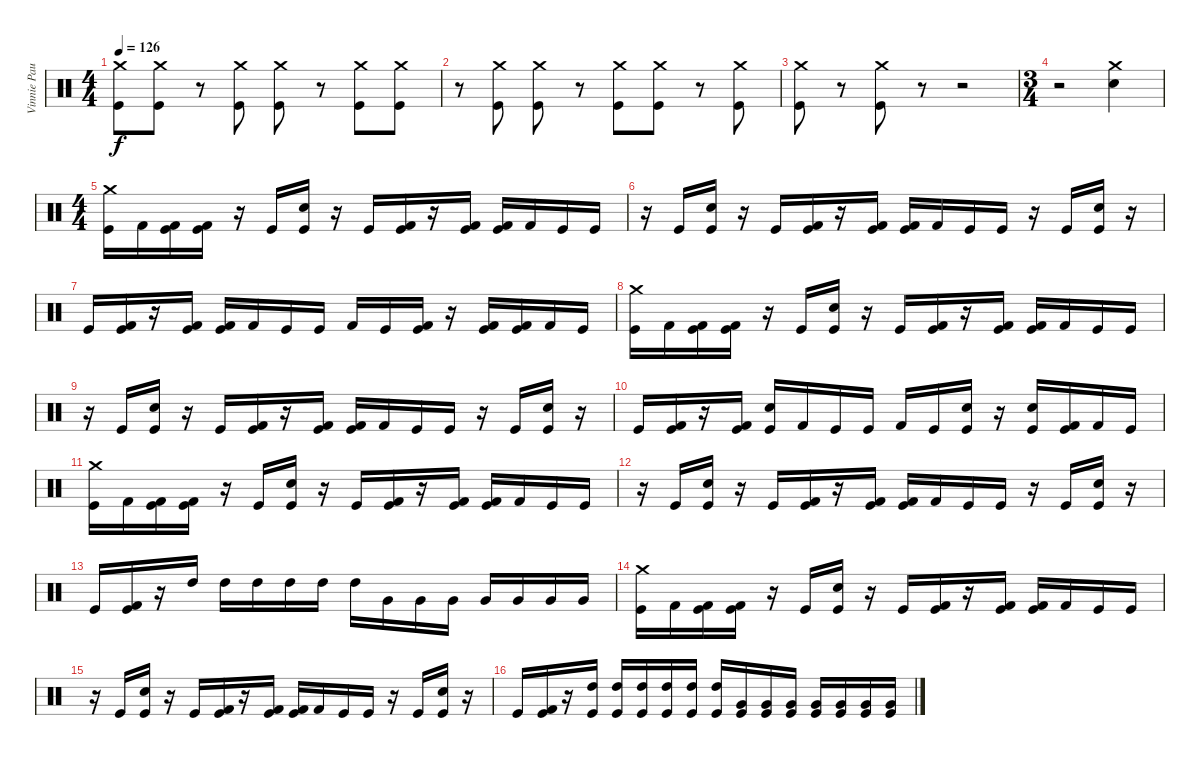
\track ("Vinnie Paul" "Vinnie Pau") {instrument percussion}
\staff {score}
\articulation defaults
\ts (4 4)
\tempo 126
\clef neutral
\ks c
("Kick (hit)" "Crash medium (hit)").8{dy f} ("Kick (hit)" "Crash medium (hit)").8 r.8 ("Kick (hit)" "Crash medium (hit)").8 ("Kick (hit)" "Crash medium (hit)").8 r.8 ("Kick (hit)" "Crash medium (hit)").8 ("Kick (hit)" "Crash medium (hit)").8 |
r.8 ("Kick (hit)" "Crash medium (hit)").8 ("Kick (hit)" "Crash medium (hit)").8 r.8 ("Kick (hit)" "Crash medium (hit)").8 ("Kick (hit)" "Crash medium (hit)").8 r.8 ("Kick (hit)" "Crash medium (hit)").8 |
("Kick (hit)" "Crash medium (hit)").8 r.8 ("Kick (hit)" "Crash medium (hit)").8 r.8 r.2 |
\ts (3 4)
r.2 ("Snare (hit) 2" "Crash medium (hit)").4 |
\ts (4 4)
("Kick (hit)" "Crash medium (hit)").16 "Kick (hit) 2".16 ("Kick (hit)" "Kick (hit) 2").16 ("Kick (hit)" "Kick (hit) 2").16 r.16 "Kick (hit)".16 ("Kick (hit)" "Snare (hit) 2").16 r.16 "Kick (hit)".16 ("Kick (hit)" "Kick (hit) 2").16 r.16 ("Kick (hit)" "Kick (hit) 2").16 ("Kick (hit)" "Kick (hit) 2").16 "Kick (hit) 2".16 "Kick (hit)".16 "Kick (hit)".16 |
r.16 "Kick (hit)".16 ("Kick (hit)" "Snare (hit) 2").16 r.16 "Kick (hit)".16 ("Kick (hit)" "Kick (hit) 2").16 r.16 ("Kick (hit)" "Kick (hit) 2").16 ("Kick (hit)" "Kick (hit) 2").16 "Kick (hit) 2".16 "Kick (hit)".16 "Kick (hit)".16 r.16 "Kick (hit)".16 ("Kick (hit)" "Snare (hit) 2").16 r.16 |
"Kick (hit)".16 ("Kick (hit)" "Kick (hit) 2").16 r.16 ("Kick (hit)" "Kick (hit) 2").16 ("Kick (hit)" "Kick (hit) 2").16 "Kick (hit) 2".16 "Kick (hit)".16 "Kick (hit)".16 "Kick (hit) 2".16 "Kick (hit)".16 ("Kick (hit)" "Kick (hit) 2").16 r.16 ("Kick (hit)" "Kick (hit) 2").16 ("Kick (hit)" "Kick (hit) 2").16 "Kick (hit) 2".16 "Kick (hit)".16 |
("Kick (hit)" "Crash medium (hit)").16 "Kick (hit) 2".16 ("Kick (hit)" "Kick (hit) 2").16 ("Kick (hit)" "Kick (hit) 2").16 r.16 "Kick (hit)".16 ("Kick (hit)" "Snare (hit) 2").16 r.16 "Kick (hit)".16 ("Kick (hit)" "Kick (hit) 2").16 r.16 ("Kick (hit)" "Kick (hit) 2").16 ("Kick (hit)" "Kick (hit) 2").16 "Kick (hit) 2".16 "Kick (hit)".16 "Kick (hit)".16 |
r.16 "Kick (hit)".16 ("Kick (hit)" "Snare (hit) 2").16 r.16 "Kick (hit)".16 ("Kick (hit)" "Kick (hit) 2").16 r.16 ("Kick (hit)" "Kick (hit) 2").16 ("Kick (hit)" "Kick (hit) 2").16 "Kick (hit) 2".16 "Kick (hit)".16 "Kick (hit)".16 r.16 "Kick (hit)".16 ("Kick (hit)" "Snare (hit) 2").16 r.16 |
"Kick (hit)".16 ("Kick (hit)" "Kick (hit) 2").16 r.16 ("Kick (hit)" "Kick (hit) 2").16 ("Kick (hit)" "Snare (hit) 2").16 "Kick (hit) 2".16 "Kick (hit)".16 "Kick (hit)".16 "Kick (hit) 2".16 "Kick (hit)".16 ("Kick (hit)" "Snare (hit) 2").16 r.16 ("Kick (hit)" "Snare (hit) 2").16 ("Kick (hit)" "Kick (hit) 2").16 "Kick (hit) 2".16 "Kick (hit)".16 |
("Kick (hit)" "Crash medium (hit)").16 "Kick (hit) 2".16 ("Kick (hit)" "Kick (hit) 2").16 ("Kick (hit)" "Kick (hit) 2").16 r.16 "Kick (hit)".16 ("Kick (hit)" "Snare (hit) 2").16 r.16 "Kick (hit)".16 ("Kick (hit)" "Kick (hit) 2").16 r.16 ("Kick (hit)" "Kick (hit) 2").16 ("Kick (hit)" "Kick (hit) 2").16 "Kick (hit) 2".16 "Kick (hit)".16 "Kick (hit)".16 |
r.16 "Kick (hit)".16 ("Kick (hit)" "Snare (hit) 2").16 r.16 "Kick (hit)".16 ("Kick (hit)" "Kick (hit) 2").16 r.16 ("Kick (hit)" "Kick (hit) 2").16 ("Kick (hit)" "Kick (hit) 2").16 "Kick (hit) 2".16 "Kick (hit)".16 "Kick (hit)".16 r.16 "Kick (hit)".16 ("Kick (hit)" "Snare (hit) 2").16 r.16 |
"Kick (hit)".16 ("Kick (hit)" "Kick (hit) 2").16 r.16 "High Tom (hit)".16 "High Tom (hit)".16 "High Tom (hit)".16 "High Tom (hit)".16 "High Tom (hit)".16 "High Tom (hit)".16 "Very Low Tom (hit)".16 "Very Low Tom (hit)".16 "Very Low Tom (hit)".16 "Very Low Tom (hit)".16 "Very Low Tom (hit)".16 "Very Low Tom (hit)".16 "Very Low Tom (hit)".16 |
("Kick (hit)" "Crash medium (hit)").16 "Kick (hit) 2".16 ("Kick (hit)" "Kick (hit) 2").16 ("Kick (hit)" "Kick (hit) 2").16 r.16 "Kick (hit)".16 ("Kick (hit)" "Snare (hit) 2").16 r.16 "Kick (hit)".16 ("Kick (hit)" "Kick (hit) 2").16 r.16 ("Kick (hit)" "Kick (hit) 2").16 ("Kick (hit)" "Kick (hit) 2").16 "Kick (hit) 2".16 "Kick (hit)".16 "Kick (hit)".16 |
r.16 "Kick (hit)".16 ("Kick (hit)" "Snare (hit) 2").16 r.16 "Kick (hit)".16 ("Kick (hit)" "Kick (hit) 2").16 r.16 ("Kick (hit)" "Kick (hit) 2").16 ("Kick (hit)" "Kick (hit) 2").16 "Kick (hit) 2".16 "Kick (hit)".16 "Kick (hit)".16 r.16 "Kick (hit)".16 ("Kick (hit)" "Snare (hit) 2").16 r.16 |
"Kick (hit)".16 ("Kick (hit)" "Kick (hit) 2").16 r.16 ("High Tom (hit)" "Kick (hit)").16 ("High Tom (hit)" "Kick (hit)").16 ("High Tom (hit)" "Kick (hit)").16 ("High Tom (hit)" "Kick (hit)").16 ("High Tom (hit)" "Kick (hit)").16 ("High Tom (hit)" "Kick (hit)").16 ("Very Low Tom (hit)" "Kick (hit)").16 ("Very Low Tom (hit)" "Kick (hit)").16 ("Very Low Tom (hit)" "Kick (hit)").16 ("Very Low Tom (hit)" "Kick (hit)").16 ("Very Low Tom (hit)" "Kick (hit)").16 ("Very Low Tom (hit)" "Kick (hit)").16 ("Very Low Tom (hit)" "Kick (hit)").16
